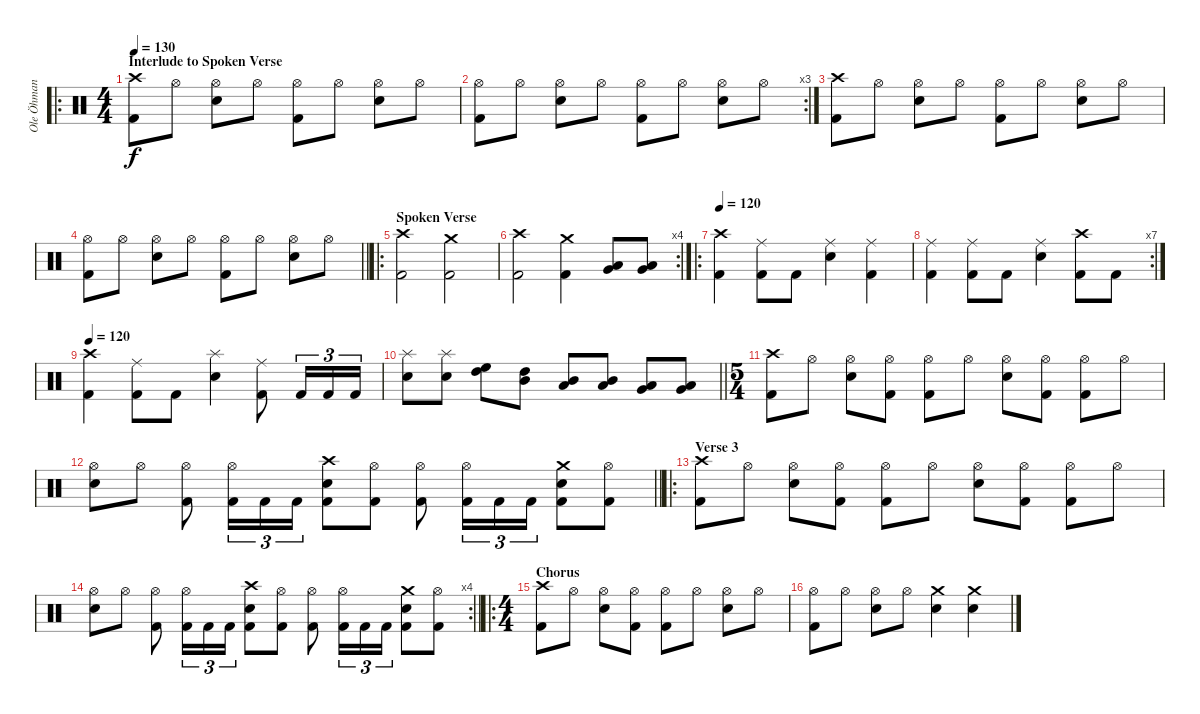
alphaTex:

\track ("Ole Öhman" "Ole Öhman") {instrument percussion}
\staff {score}
\articulation defaults
\ro
\ts (4 4)
\section ("" "Interlude to Spoken Verse")
\tempo 130
\clef neutral
\ks c
("Crash high (hit)" "Kick (hit) 2").8{dy f} "Hi-Hat (open)".8 ("Hi-Hat (open)" "Electric Snare (hit)").8 "Hi-Hat (open)".8 ("Hi-Hat (open)" "Kick (hit) 2").8 "Hi-Hat (open)".8 ("Hi-Hat (open)" "Electric Snare (hit)").8 "Hi-Hat (open)".8 |
\rc 3
("Hi-Hat (open)" "Kick (hit) 2").8 "Hi-Hat (open)".8 ("Hi-Hat (open)" "Electric Snare (hit)").8 "Hi-Hat (open)".8 ("Hi-Hat (open)" "Kick (hit) 2").8 "Hi-Hat (open)".8 ("Hi-Hat (open)" "Electric Snare (hit)").8 "Hi-Hat (open)".8 |
("Crash high (hit)" "Kick (hit) 2").8 "Hi-Hat (open)".8 ("Hi-Hat (open)" "Electric Snare (hit)").8 "Hi-Hat (open)".8 ("Hi-Hat (open)" "Kick (hit) 2").8 "Hi-Hat (open)".8 ("Hi-Hat (open)" "Electric Snare (hit)").8 "Hi-Hat (open)".8 |
\barLineRight lightlight
("Hi-Hat (open)" "Kick (hit) 2").8 "Hi-Hat (open)".8 ("Hi-Hat (open)" "Electric Snare (hit)").8 "Hi-Hat (open)".8 ("Hi-Hat (open)" "Kick (hit) 2").8 "Hi-Hat (open)".8 ("Hi-Hat (open)" "Electric Snare (hit)").8 "Hi-Hat (open)".8 |
\ro
\section ("" "Spoken Verse")
("Crash high (hit)" "Kick (hit) 2").2 ("Crash medium (hit)" "Kick (hit) 2").2 |
\rc 4
("Crash high (hit)" "Kick (hit) 2").2 ("Crash medium (hit)" "Kick (hit) 2").4 ("Low Tom (hit)" "Very Low Tom (hit)").8 ("Very Low Tom (hit)" "Low Floor Tom (hit)").8 |
\ro
\tempo 120
("Crash high (hit)" "Kick (hit) 2").4 ("Ride (middle)" "Kick (hit) 2").8 "Kick (hit) 2".8 ("Ride (middle)" "Electric Snare (hit)").4 ("Ride (middle)" "Kick (hit) 2").4 |
\rc 7
("Ride (middle)" "Kick (hit) 2").4 ("Ride (middle)" "Kick (hit) 2").8 "Kick (hit) 2".8 ("Ride (middle)" "Electric Snare (hit)").4 ("Crash high (hit)" "Kick (hit) 2").8 "Kick (hit) 2".8 |
\tempo 120
("Crash high (hit)" "Kick (hit) 2").4 ("Ride (middle)" "Kick (hit) 2").8 "Kick (hit) 2".8 ("Splash (hit)" "Electric Snare (hit)").4 ("Ride (middle)" "Kick (hit) 2").8 "Kick (hit) 2".16{tu (3 2)} "Kick (hit) 2".16{tu (3 2)} "Kick (hit) 2".16{tu (3 2)} |
\barLineRight lightlight
("Splash (hit)" "Electric Snare (hit)").8 ("Splash (hit)" "Electric Snare (hit)").8 ("High Tom (hit)" "High Floor Tom (hit)").8 ("Mid Tom (hit)" "High Tom (hit)").8 ("Low Tom (hit)" "Mid Tom (hit)").8 ("Low Tom (hit)" "Mid Tom (hit)").8 ("Very Low Tom (hit)" "Low Tom (hit)").8 ("Low Floor Tom (hit)" "Very Low Tom (hit)").8 |
\ts (5 4)
("Crash high (hit)" "Kick (hit) 2").8 "Hi-Hat (open)".8 ("Hi-Hat (open)" "Electric Snare (hit)").8 ("Hi-Hat (open)" "Kick (hit) 2").8 ("Hi-Hat (open)" "Kick (hit) 2").8 "Hi-Hat (open)".8 ("Hi-Hat (open)" "Electric Snare (hit)").8 ("Hi-Hat (open)" "Kick (hit) 2").8 ("Hi-Hat (open)" "Kick (hit) 2").8 "Hi-Hat (open)".8 |
\barLineRight lightlight
("Hi-Hat (open)" "Electric Snare (hit)").8 "Hi-Hat (open)".8 ("Hi-Hat (open)" "Kick (hit) 2").8 ("Hi-Hat (open)" "Kick (hit) 2").16{tu (3 2)} "Kick (hit) 2".16{tu (3 2)} "Kick (hit) 2".16{tu (3 2)} ("Crash high (hit)" "Electric Snare (hit)" "Kick (hit) 2").8 ("Hi-Hat (open)" "Kick (hit) 2").8 ("Hi-Hat (open)" "Kick (hit) 2").8 ("Hi-Hat (open)" "Kick (hit) 2").16{tu (3 2)} "Kick (hit) 2".16{tu (3 2)} "Kick (hit) 2".16{tu (3 2)} ("Crash medium (hit)" "Electric Snare (hit)" "Kick (hit) 2").8 ("Hi-Hat (open)" "Kick (hit) 2").8 |
\ro
\section ("" "Verse 3")
("Crash high (hit)" "Kick (hit) 2").8 "Hi-Hat (open)".8 ("Hi-Hat (open)" "Electric Snare (hit)").8 ("Hi-Hat (open)" "Kick (hit) 2").8 ("Hi-Hat (open)" "Kick (hit) 2").8 "Hi-Hat (open)".8 ("Hi-Hat (open)" "Electric Snare (hit)").8 ("Hi-Hat (open)" "Kick (hit) 2").8 ("Hi-Hat (open)" "Kick (hit) 2").8 "Hi-Hat (open)".8 |
\rc 4
\barLineRight lightlight
("Hi-Hat (open)" "Electric Snare (hit)").8 "Hi-Hat (open)".8 ("Hi-Hat (open)" "Kick (hit) 2").8 ("Hi-Hat (open)" "Kick (hit) 2").16{tu (3 2)} "Kick (hit) 2".16{tu (3 2)} "Kick (hit) 2".16{tu (3 2)} ("Crash high (hit)" "Electric Snare (hit)" "Kick (hit) 2").8 ("Hi-Hat (open)" "Kick (hit) 2").8 ("Hi-Hat (open)" "Kick (hit) 2").8 ("Hi-Hat (open)" "Kick (hit) 2").16{tu (3 2)} "Kick (hit) 2".16{tu (3 2)} "Kick (hit) 2".16{tu (3 2)} ("Crash medium (hit)" "Electric Snare (hit)" "Kick (hit) 2").8 ("Hi-Hat (open)" "Kick (hit) 2").8 |
\ro
\ts (4 4)
\section ("" "Chorus")
("Crash high (hit)" "Kick (hit) 2").8 "Hi-Hat (open)".8 ("Hi-Hat (open)" "Electric Snare (hit)").8 ("Hi-Hat (open)" "Kick (hit) 2").8 ("Hi-Hat (open)" "Kick (hit) 2").8 "Hi-Hat (open)".8 ("Hi-Hat (open)" "Electric Snare (hit)").8 "Hi-Hat (open)".8 |
("Hi-Hat (open)" "Kick (hit) 2").8 "Hi-Hat (open)".8 ("Hi-Hat (open)" "Electric Snare (hit)").8 "Hi-Hat (open)".8 ("Crash medium (hit)" "Electric Snare (hit)").4 ("Crash medium (hit)" "Electric Snare (hit)").4
